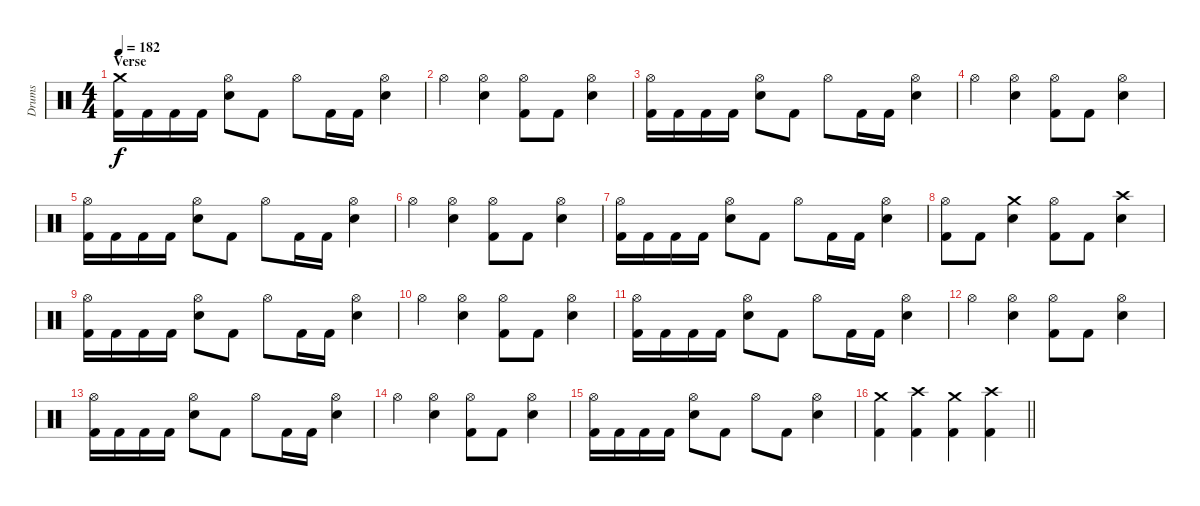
\track ("Drums" "Drums") {instrument percussion}
\staff {score}
\articulation defaults
\ts (4 4)
\section ("" "Verse")
\tempo 182
\clef neutral
\ks c
("Crash medium (hit)" "Kick (hit) 2").16{dy f} "Kick (hit) 2".16 "Kick (hit) 2".16 "Kick (hit) 2".16 ("Hi-Hat (open)" "Snare (hit) 2").8 "Kick (hit) 2".8 "Hi-Hat (open)".8 "Kick (hit) 2".16 "Kick (hit) 2".16 ("Hi-Hat (open)" "Snare (hit) 2").4 |
"Hi-Hat (open)".4 ("Hi-Hat (open)" "Snare (hit) 2").4 ("Hi-Hat (open)" "Kick (hit) 2").8 "Kick (hit) 2".8 ("Hi-Hat (open)" "Snare (hit) 2").4 |
("Hi-Hat (open)" "Kick (hit) 2").16 "Kick (hit) 2".16 "Kick (hit) 2".16 "Kick (hit) 2".16 ("Hi-Hat (open)" "Snare (hit) 2").8 "Kick (hit) 2".8 "Hi-Hat (open)".8 "Kick (hit) 2".16 "Kick (hit) 2".16 ("Hi-Hat (open)" "Snare (hit) 2").4 |
"Hi-Hat (open)".4 ("Hi-Hat (open)" "Snare (hit) 2").4 ("Hi-Hat (open)" "Kick (hit) 2").8 "Kick (hit) 2".8 ("Hi-Hat (open)" "Snare (hit) 2").4 |
("Hi-Hat (open)" "Kick (hit) 2").16 "Kick (hit) 2".16 "Kick (hit) 2".16 "Kick (hit) 2".16 ("Hi-Hat (open)" "Snare (hit) 2").8 "Kick (hit) 2".8 "Hi-Hat (open)".8 "Kick (hit) 2".16 "Kick (hit) 2".16 ("Hi-Hat (open)" "Snare (hit) 2").4 |
"Hi-Hat (open)".4 ("Hi-Hat (open)" "Snare (hit) 2").4 ("Hi-Hat (open)" "Kick (hit) 2").8 "Kick (hit) 2".8 ("Hi-Hat (open)" "Snare (hit) 2").4 |
("Hi-Hat (open)" "Kick (hit) 2").16 "Kick (hit) 2".16 "Kick (hit) 2".16 "Kick (hit) 2".16 ("Hi-Hat (open)" "Snare (hit) 2").8 "Kick (hit) 2".8 "Hi-Hat (open)".8 "Kick (hit) 2".16 "Kick (hit) 2".16 ("Hi-Hat (open)" "Snare (hit) 2").4 |
("Hi-Hat (open)" "Kick (hit) 2").8 "Kick (hit) 2".8 ("Crash medium (hit)" "Snare (hit) 2").4 ("Hi-Hat (open)" "Kick (hit) 2").8 "Kick (hit) 2".8 ("Crash high (hit)" "Snare (hit) 2").4 |
("Hi-Hat (open)" "Kick (hit) 2").16 "Kick (hit) 2".16 "Kick (hit) 2".16 "Kick (hit) 2".16 ("Hi-Hat (open)" "Snare (hit) 2").8 "Kick (hit) 2".8 "Hi-Hat (open)".8 "Kick (hit) 2".16 "Kick (hit) 2".16 ("Hi-Hat (open)" "Snare (hit) 2").4 |
"Hi-Hat (open)".4 ("Hi-Hat (open)" "Snare (hit) 2").4 ("Hi-Hat (open)" "Kick (hit) 2").8 "Kick (hit) 2".8 ("Hi-Hat (open)" "Snare (hit) 2").4 |
("Hi-Hat (open)" "Kick (hit) 2").16 "Kick (hit) 2".16 "Kick (hit) 2".16 "Kick (hit) 2".16 ("Hi-Hat (open)" "Snare (hit) 2").8 "Kick (hit) 2".8 "Hi-Hat (open)".8 "Kick (hit) 2".16 "Kick (hit) 2".16 ("Hi-Hat (open)" "Snare (hit) 2").4 |
"Hi-Hat (open)".4 ("Hi-Hat (open)" "Snare (hit) 2").4 ("Hi-Hat (open)" "Kick (hit) 2").8 "Kick (hit) 2".8 ("Hi-Hat (open)" "Snare (hit) 2").4 |
("Hi-Hat (open)" "Kick (hit) 2").16 "Kick (hit) 2".16 "Kick (hit) 2".16 "Kick (hit) 2".16 ("Hi-Hat (open)" "Snare (hit) 2").8 "Kick (hit) 2".8 "Hi-Hat (open)".8 "Kick (hit) 2".16 "Kick (hit) 2".16 ("Hi-Hat (open)" "Snare (hit) 2").4 |
"Hi-Hat (open)".4 ("Hi-Hat (open)" "Snare (hit) 2").4 ("Hi-Hat (open)" "Kick (hit) 2").8 "Kick (hit) 2".8 ("Hi-Hat (open)" "Snare (hit) 2").4 |
("Hi-Hat (open)" "Kick (hit) 2").16 "Kick (hit) 2".16 "Kick (hit) 2".16 "Kick (hit) 2".16 ("Hi-Hat (open)" "Snare (hit) 2").8 "Kick (hit) 2".8 "Hi-Hat (open)".8 "Kick (hit) 2".8 ("Hi-Hat (open)" "Snare (hit) 2").4 |
\barLineRight lightlight
("Crash medium (hit)" "Kick (hit) 2").4 ("Crash high (hit)" "Kick (hit) 2").4 ("Crash medium (hit)" "Kick (hit) 2").4 ("Crash high (hit)" "Kick (hit) 2").4
